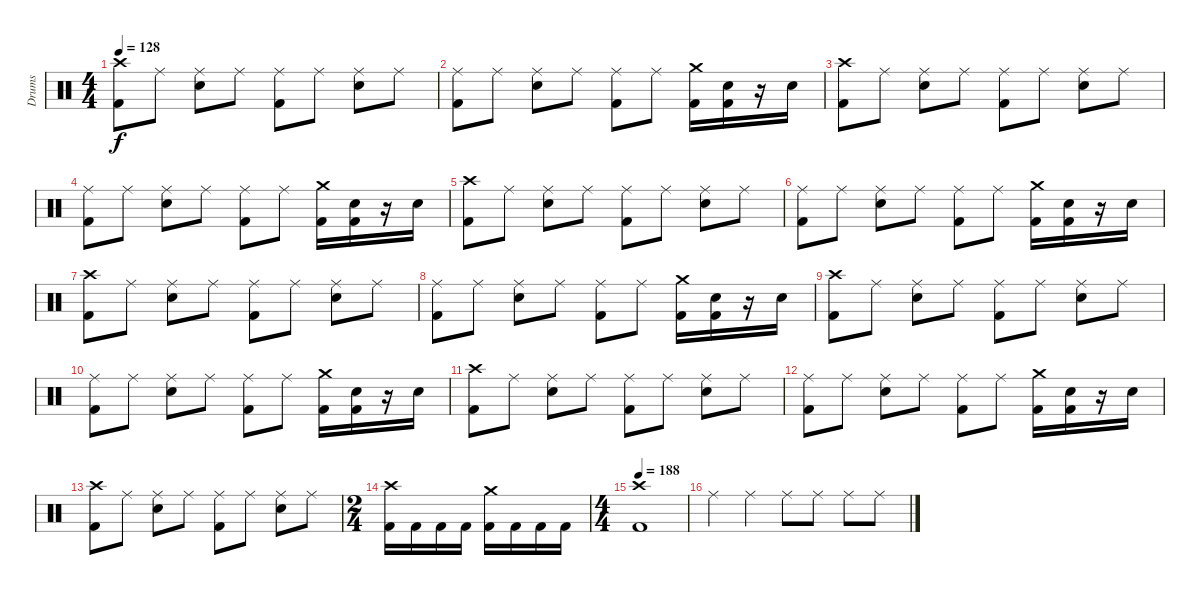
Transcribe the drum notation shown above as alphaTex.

\track ("Drums" "Drums") {instrument percussion}
\staff {score}
\articulation defaults
\ts (4 4)
\tempo 128
\clef neutral
\ks c
("Crash high (hit)" "Kick (hit) 2").8{dy f} "Ride (middle)".8 ("Ride (middle)" "Electric Snare (hit)").8 "Ride (middle)".8 ("Ride (middle)" "Kick (hit) 2").8 "Ride (middle)".8 ("Ride (middle)" "Electric Snare (hit)").8 "Ride (middle)".8 |
("Ride (middle)" "Kick (hit) 2").8 "Ride (middle)".8 ("Ride (middle)" "Electric Snare (hit)").8 "Ride (middle)".8 ("Ride (middle)" "Kick (hit) 2").8 "Ride (middle)".8 ("Crash medium (hit)" "Kick (hit) 2").16 ("Electric Snare (hit)" "Kick (hit) 2").16 r.16 "Electric Snare (hit)".16 |
("Crash high (hit)" "Kick (hit) 2").8 "Ride (middle)".8 ("Ride (middle)" "Electric Snare (hit)").8 "Ride (middle)".8 ("Ride (middle)" "Kick (hit) 2").8 "Ride (middle)".8 ("Ride (middle)" "Electric Snare (hit)").8 "Ride (middle)".8 |
("Ride (middle)" "Kick (hit) 2").8 "Ride (middle)".8 ("Ride (middle)" "Electric Snare (hit)").8 "Ride (middle)".8 ("Ride (middle)" "Kick (hit) 2").8 "Ride (middle)".8 ("Crash medium (hit)" "Kick (hit) 2").16 ("Electric Snare (hit)" "Kick (hit) 2").16 r.16 "Electric Snare (hit)".16 |
("Crash high (hit)" "Kick (hit) 2").8 "Ride (middle)".8 ("Ride (middle)" "Electric Snare (hit)").8 "Ride (middle)".8 ("Ride (middle)" "Kick (hit) 2").8 "Ride (middle)".8 ("Ride (middle)" "Electric Snare (hit)").8 "Ride (middle)".8 |
("Ride (middle)" "Kick (hit) 2").8 "Ride (middle)".8 ("Ride (middle)" "Electric Snare (hit)").8 "Ride (middle)".8 ("Ride (middle)" "Kick (hit) 2").8 "Ride (middle)".8 ("Crash medium (hit)" "Kick (hit) 2").16 ("Electric Snare (hit)" "Kick (hit) 2").16 r.16 "Electric Snare (hit)".16 |
("Crash high (hit)" "Kick (hit) 2").8 "Ride (middle)".8 ("Ride (middle)" "Electric Snare (hit)").8 "Ride (middle)".8 ("Ride (middle)" "Kick (hit) 2").8 "Ride (middle)".8 ("Ride (middle)" "Electric Snare (hit)").8 "Ride (middle)".8 |
("Ride (middle)" "Kick (hit) 2").8 "Ride (middle)".8 ("Ride (middle)" "Electric Snare (hit)").8 "Ride (middle)".8 ("Ride (middle)" "Kick (hit) 2").8 "Ride (middle)".8 ("Crash medium (hit)" "Kick (hit) 2").16 ("Electric Snare (hit)" "Kick (hit) 2").16 r.16 "Electric Snare (hit)".16 |
("Crash high (hit)" "Kick (hit) 2").8 "Ride (middle)".8 ("Ride (middle)" "Electric Snare (hit)").8 "Ride (middle)".8 ("Ride (middle)" "Kick (hit) 2").8 "Ride (middle)".8 ("Ride (middle)" "Electric Snare (hit)").8 "Ride (middle)".8 |
("Ride (middle)" "Kick (hit) 2").8 "Ride (middle)".8 ("Ride (middle)" "Electric Snare (hit)").8 "Ride (middle)".8 ("Ride (middle)" "Kick (hit) 2").8 "Ride (middle)".8 ("Crash medium (hit)" "Kick (hit) 2").16 ("Electric Snare (hit)" "Kick (hit) 2").16 r.16 "Electric Snare (hit)".16 |
("Crash high (hit)" "Kick (hit) 2").8 "Ride (middle)".8 ("Ride (middle)" "Electric Snare (hit)").8 "Ride (middle)".8 ("Ride (middle)" "Kick (hit) 2").8 "Ride (middle)".8 ("Ride (middle)" "Electric Snare (hit)").8 "Ride (middle)".8 |
("Ride (middle)" "Kick (hit) 2").8 "Ride (middle)".8 ("Ride (middle)" "Electric Snare (hit)").8 "Ride (middle)".8 ("Ride (middle)" "Kick (hit) 2").8 "Ride (middle)".8 ("Crash medium (hit)" "Kick (hit) 2").16 ("Electric Snare (hit)" "Kick (hit) 2").16 r.16 "Electric Snare (hit)".16 |
("Crash high (hit)" "Kick (hit) 2").8 "Ride (middle)".8 ("Ride (middle)" "Electric Snare (hit)").8 "Ride (middle)".8 ("Ride (middle)" "Kick (hit) 2").8 "Ride (middle)".8 ("Ride (middle)" "Electric Snare (hit)").8 "Ride (middle)".8 |
\ts (2 4)
("Crash high (hit)" "Kick (hit) 2").16 "Kick (hit) 2".16 "Kick (hit) 2".16 "Kick (hit) 2".16 ("Crash medium (hit)" "Kick (hit) 2").16 "Kick (hit) 2".16 "Kick (hit) 2".16 "Kick (hit) 2".16 |
\ts (4 4)
\tempo 188
("Crash high (hit)" "Kick (hit) 2").1 |
"Ride (middle)".4 "Ride (middle)".4 "Ride (middle)".8 "Ride (middle)".8 "Ride (middle)".8 "Ride (middle)".8
